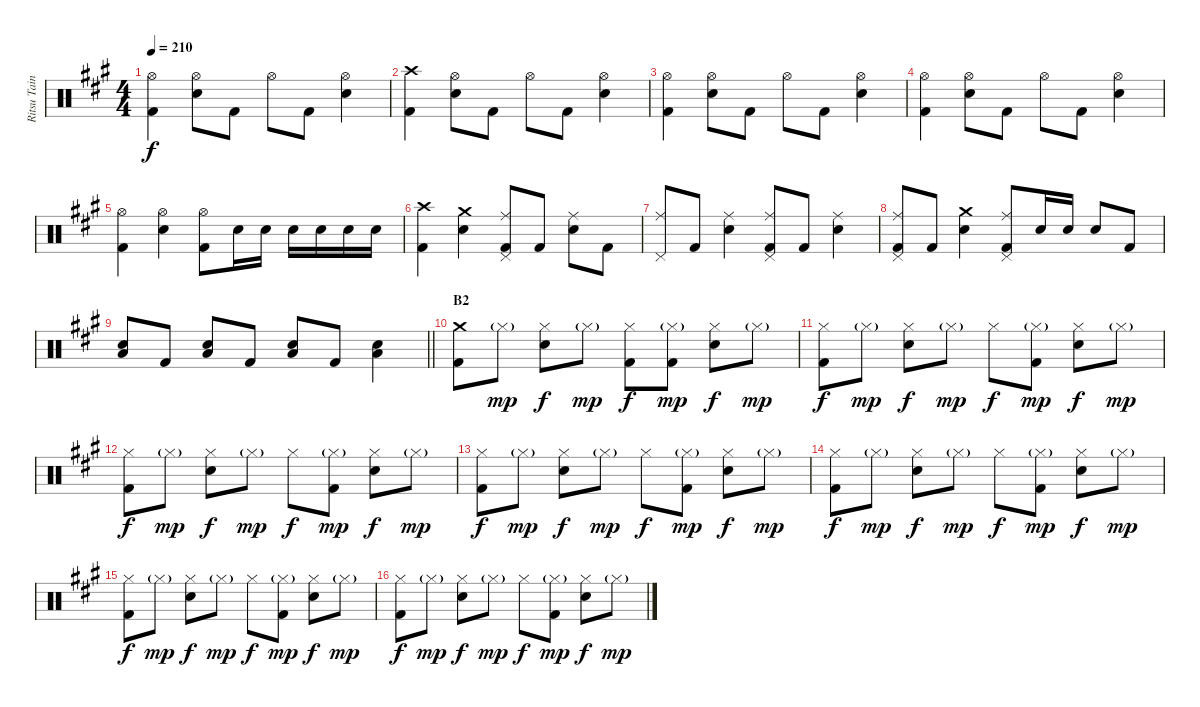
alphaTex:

\track ("Ritsu Tainaka" "Ritsu Tain") {instrument percussion}
\staff {score}
\articulation defaults
\ts (4 4)
\tempo 210
\clef neutral
\ks a
("Hi-Hat (open)" "Kick (hit) 2").4{dy f} ("Hi-Hat (open)" "Electric Snare (hit)").8 "Kick (hit) 2".8 "Hi-Hat (open)".8 "Kick (hit) 2".8 ("Hi-Hat (open)" "Electric Snare (hit)").4 |
("Crash high (hit)" "Kick (hit) 2").4 ("Hi-Hat (open)" "Electric Snare (hit)").8 "Kick (hit) 2".8 "Hi-Hat (open)".8 "Kick (hit) 2".8 ("Hi-Hat (open)" "Electric Snare (hit)").4 |
("Hi-Hat (open)" "Kick (hit) 2").4 ("Hi-Hat (open)" "Electric Snare (hit)").8 "Kick (hit) 2".8 "Hi-Hat (open)".8 "Kick (hit) 2".8 ("Hi-Hat (open)" "Electric Snare (hit)").4 |
("Hi-Hat (open)" "Kick (hit) 2").4 ("Hi-Hat (open)" "Electric Snare (hit)").8 "Kick (hit) 2".8 "Hi-Hat (open)".8 "Kick (hit) 2".8 ("Hi-Hat (open)" "Electric Snare (hit)").4 |
("Hi-Hat (open)" "Kick (hit) 2").4 ("Hi-Hat (open)" "Electric Snare (hit)").4 ("Hi-Hat (open)" "Kick (hit) 2").8 "Electric Snare (hit)".16 "Electric Snare (hit)".16 "Electric Snare (hit)".16 "Electric Snare (hit)".16 "Electric Snare (hit)".16 "Electric Snare (hit)".16 |
("Crash high (hit)" "Kick (hit) 2").4 ("Crash medium (hit)" "Electric Snare (hit)").4 ("Ride (middle)" "Pedal Hi-Hat (hit)" "Kick (hit) 2").8 "Kick (hit) 2".8 ("Ride (middle)" "Electric Snare (hit)").8 "Kick (hit) 2".8 |
("Ride (middle)" "Pedal Hi-Hat (hit)").8 "Kick (hit) 2".8 ("Ride (middle)" "Electric Snare (hit)").4 ("Ride (middle)" "Pedal Hi-Hat (hit)" "Kick (hit) 2").8 "Kick (hit) 2".8 ("Ride (middle)" "Electric Snare (hit)").4 |
("Ride (middle)" "Pedal Hi-Hat (hit)" "Kick (hit) 2").8 "Kick (hit) 2".8 ("Crash medium (hit)" "Electric Snare (hit)").4 ("Ride (middle)" "Pedal Hi-Hat (hit)" "Kick (hit) 2").8 "Electric Snare (hit)".16 "Electric Snare (hit)".16 "Electric Snare (hit)".8 "Kick (hit) 2".8 |
\barLineRight lightlight
("Electric Snare (hit)" "Low Floor Tom (hit)").8 "Kick (hit) 2".8 ("Electric Snare (hit)" "Low Floor Tom (hit)").8 "Kick (hit) 2".8 ("Electric Snare (hit)" "Low Floor Tom (hit)").8 "Kick (hit) 2".8 ("Electric Snare (hit)" "Low Floor Tom (hit)").4 |
\section ("" "B2")
("Crash medium (hit)" "Kick (hit) 2").8 "Hi-Hat (closed)"{g}.8{dy mp} ("Hi-Hat (closed)" "Electric Snare (hit)").8{dy f} "Hi-Hat (closed)"{g}.8{dy mp} ("Hi-Hat (closed)" "Kick (hit) 2").8{dy f} ("Hi-Hat (closed)"{g} "Kick (hit) 2").8{dy mp} ("Hi-Hat (closed)" "Electric Snare (hit)").8{dy f} "Hi-Hat (closed)"{g}.8{dy mp} |
("Hi-Hat (closed)" "Kick (hit) 2").8{dy f} "Hi-Hat (closed)"{g}.8{dy mp} ("Hi-Hat (closed)" "Electric Snare (hit)").8{dy f} "Hi-Hat (closed)"{g}.8{dy mp} "Hi-Hat (closed)".8{dy f} ("Hi-Hat (closed)"{g} "Kick (hit) 2").8{dy mp} ("Hi-Hat (closed)" "Electric Snare (hit)").8{dy f} "Hi-Hat (closed)"{g}.8{dy mp} |
("Hi-Hat (closed)" "Kick (hit) 2").8{dy f} "Hi-Hat (closed)"{g}.8{dy mp} ("Hi-Hat (closed)" "Electric Snare (hit)").8{dy f} "Hi-Hat (closed)"{g}.8{dy mp} "Hi-Hat (closed)".8{dy f} ("Hi-Hat (closed)"{g} "Kick (hit) 2").8{dy mp} ("Hi-Hat (closed)" "Electric Snare (hit)").8{dy f} "Hi-Hat (closed)"{g}.8{dy mp} |
("Hi-Hat (closed)" "Kick (hit) 2").8{dy f} "Hi-Hat (closed)"{g}.8{dy mp} ("Hi-Hat (closed)" "Electric Snare (hit)").8{dy f} "Hi-Hat (closed)"{g}.8{dy mp} "Hi-Hat (closed)".8{dy f} ("Hi-Hat (closed)"{g} "Kick (hit) 2").8{dy mp} ("Hi-Hat (closed)" "Electric Snare (hit)").8{dy f} "Hi-Hat (closed)"{g}.8{dy mp} |
("Hi-Hat (closed)" "Kick (hit) 2").8{dy f} "Hi-Hat (closed)"{g}.8{dy mp} ("Hi-Hat (closed)" "Electric Snare (hit)").8{dy f} "Hi-Hat (closed)"{g}.8{dy mp} "Hi-Hat (closed)".8{dy f} ("Hi-Hat (closed)"{g} "Kick (hit) 2").8{dy mp} ("Hi-Hat (closed)" "Electric Snare (hit)").8{dy f} "Hi-Hat (closed)"{g}.8{dy mp} |
("Hi-Hat (closed)" "Kick (hit) 2").8{dy f} "Hi-Hat (closed)"{g}.8{dy mp} ("Hi-Hat (closed)" "Electric Snare (hit)").8{dy f} "Hi-Hat (closed)"{g}.8{dy mp} "Hi-Hat (closed)".8{dy f} ("Hi-Hat (closed)"{g} "Kick (hit) 2").8{dy mp} ("Hi-Hat (closed)" "Electric Snare (hit)").8{dy f} "Hi-Hat (closed)"{g}.8{dy mp} |
("Hi-Hat (closed)" "Kick (hit) 2").8{dy f} "Hi-Hat (closed)"{g}.8{dy mp} ("Hi-Hat (closed)" "Electric Snare (hit)").8{dy f} "Hi-Hat (closed)"{g}.8{dy mp} "Hi-Hat (closed)".8{dy f} ("Hi-Hat (closed)"{g} "Kick (hit) 2").8{dy mp} ("Hi-Hat (closed)" "Electric Snare (hit)").8{dy f} "Hi-Hat (closed)"{g}.8{dy mp}
